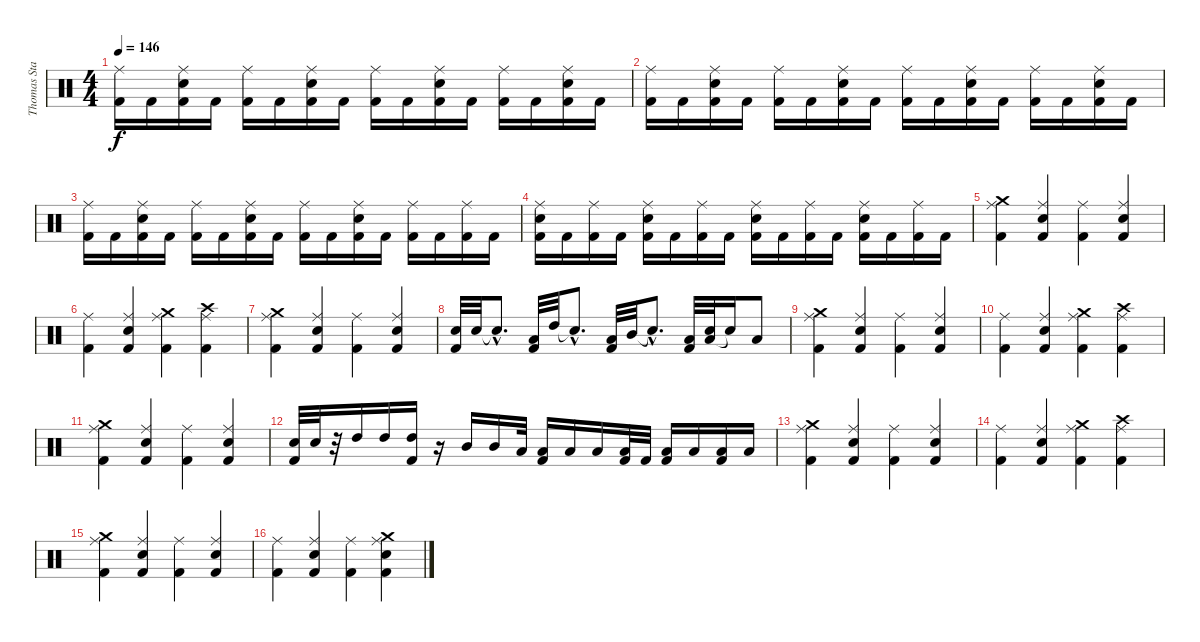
\track ("Thomas Stauch" "Thomas Sta") {instrument percussion}
\staff {score}
\articulation defaults
\ts (4 4)
\tempo 146
\clef neutral
\ks c
("Kick (hit) 2" "Ride (middle)").16{dy f} "Kick (hit) 2".16 ("Electric Snare (hit)" "Kick (hit) 2" "Ride (middle)").16 "Kick (hit) 2".16 ("Kick (hit) 2" "Ride (middle)").16 "Kick (hit) 2".16 ("Electric Snare (hit)" "Kick (hit) 2" "Ride (middle)").16 "Kick (hit) 2".16 ("Kick (hit) 2" "Ride (middle)").16 "Kick (hit) 2".16 ("Electric Snare (hit)" "Kick (hit) 2" "Ride (middle)").16 "Kick (hit) 2".16 ("Kick (hit) 2" "Ride (middle)").16 "Kick (hit) 2".16 ("Electric Snare (hit)" "Kick (hit) 2" "Ride (middle)").16 "Kick (hit) 2".16 |
("Kick (hit) 2" "Ride (middle)").16 "Kick (hit) 2".16 ("Electric Snare (hit)" "Kick (hit) 2" "Ride (middle)").16 "Kick (hit) 2".16 ("Kick (hit) 2" "Ride (middle)").16 "Kick (hit) 2".16 ("Electric Snare (hit)" "Kick (hit) 2" "Ride (middle)").16 "Kick (hit) 2".16 ("Kick (hit) 2" "Ride (middle)").16 "Kick (hit) 2".16 ("Electric Snare (hit)" "Kick (hit) 2" "Ride (middle)").16 "Kick (hit) 2".16 ("Kick (hit) 2" "Ride (middle)").16 "Kick (hit) 2".16 ("Electric Snare (hit)" "Kick (hit) 2" "Ride (middle)").16 "Kick (hit) 2".16 |
("Kick (hit) 2" "Ride (middle)").16 "Kick (hit) 2".16 ("Electric Snare (hit)" "Kick (hit) 2" "Ride (middle)").16 "Kick (hit) 2".16 ("Kick (hit) 2" "Ride (middle)").16 "Kick (hit) 2".16 ("Electric Snare (hit)" "Kick (hit) 2" "Ride (middle)").16 "Kick (hit) 2".16 ("Kick (hit) 2" "Ride (middle)").16 "Kick (hit) 2".16 ("Electric Snare (hit)" "Kick (hit) 2" "Ride (middle)").16 "Kick (hit) 2".16 ("Kick (hit) 2" "Ride (middle)").16 "Kick (hit) 2".16 ("Kick (hit) 2" "Ride (middle)").16 "Kick (hit) 2".16 |
("Electric Snare (hit)" "Kick (hit) 2" "Ride (middle)").16 "Kick (hit) 2".16 ("Kick (hit) 2" "Ride (middle)").16 "Kick (hit) 2".16 ("Electric Snare (hit)" "Kick (hit) 2" "Ride (middle)").16 "Kick (hit) 2".16 ("Kick (hit) 2" "Ride (middle)").16 "Kick (hit) 2".16 ("Electric Snare (hit)" "Kick (hit) 2" "Ride (middle)").16 "Kick (hit) 2".16 ("Kick (hit) 2" "Ride (middle)").16 "Kick (hit) 2".16 ("Electric Snare (hit)" "Kick (hit) 2" "Ride (middle)").16 "Kick (hit) 2".16 ("Kick (hit) 2" "Ride (middle)").16 "Kick (hit) 2".16 |
("Crash medium (hit)" "Kick (hit) 2" "Ride (middle)").4 ("Electric Snare (hit)" "Kick (hit) 2" "Ride (middle)").4 ("Kick (hit) 2" "Ride (middle)").4 ("Electric Snare (hit)" "Kick (hit) 2" "Ride (middle)").4 |
("Kick (hit) 2" "Ride (middle)").4 ("Electric Snare (hit)" "Kick (hit) 2" "Ride (middle)").4 ("Crash medium (hit)" "Kick (hit) 2" "Ride (middle)").4 ("Crash high (hit)" "Kick (hit) 2" "Ride (middle)").4 |
("Crash medium (hit)" "Kick (hit) 2" "Ride (middle)").4 ("Electric Snare (hit)" "Kick (hit) 2" "Ride (middle)").4 ("Kick (hit) 2" "Ride (middle)").4 ("Electric Snare (hit)" "Kick (hit) 2" "Ride (middle)").4 |
("Electric Snare (hit)" "Kick (hit) 2").32 "Electric Snare (hit)".32 "Snare (hit)"{hac t}.8{d} ("Low Floor Tom (hit)" "Kick (hit) 2").32 "High Tom (hit)".32 "Snare (hit)"{hac t}.8{d} ("Low Floor Tom (hit)" "Kick (hit) 2").32 "Mid Tom (hit)".32 "Snare (hit)"{hac t}.8{d} ("Low Floor Tom (hit)" "Kick (hit) 2").32 ("Low Tom (hit)" "Electric Snare (hit)").32 "Snare (hit)"{t}.16 "Low Tom (hit)".8 |
("Crash medium (hit)" "Kick (hit) 2" "Ride (middle)").4 ("Electric Snare (hit)" "Kick (hit) 2" "Ride (middle)").4 ("Kick (hit) 2" "Ride (middle)").4 ("Electric Snare (hit)" "Kick (hit) 2" "Ride (middle)").4 |
("Kick (hit) 2" "Ride (middle)").4 ("Electric Snare (hit)" "Kick (hit) 2" "Ride (middle)").4 ("Crash medium (hit)" "Kick (hit) 2" "Ride (middle)").4 ("Crash high (hit)" "Kick (hit) 2" "Ride (middle)").4 |
("Crash medium (hit)" "Kick (hit) 2" "Ride (middle)").4 ("Electric Snare (hit)" "Kick (hit) 2" "Ride (middle)").4 ("Kick (hit) 2" "Ride (middle)").4 ("Electric Snare (hit)" "Kick (hit) 2" "Ride (middle)").4 |
("Electric Snare (hit)" "Kick (hit) 2").32 "Electric Snare (hit)".32 r.32 "High Tom (hit)".16 "High Tom (hit)".16 ("High Tom (hit)" "Kick (hit) 2").16 r.16 "Mid Tom (hit)".16 "Mid Tom (hit)".16 "Low Tom (hit)".32 ("Low Tom (hit)" "Kick (hit) 2").16 "Low Tom (hit)".16 "Low Tom (hit)".16 ("Low Tom (hit)" "Kick (hit) 2").32 "Kick (hit) 2".32 ("Low Tom (hit)" "Kick (hit) 2").16 "Low Tom (hit)".16 ("Low Tom (hit)" "Kick (hit) 2").16 "Low Tom (hit)".16 |
("Crash medium (hit)" "Kick (hit) 2" "Ride (middle)").4 ("Electric Snare (hit)" "Kick (hit) 2" "Ride (middle)").4 ("Kick (hit) 2" "Ride (middle)").4 ("Electric Snare (hit)" "Kick (hit) 2" "Ride (middle)").4 |
("Kick (hit) 2" "Ride (middle)").4 ("Electric Snare (hit)" "Kick (hit) 2" "Ride (middle)").4 ("Crash medium (hit)" "Kick (hit) 2" "Ride (middle)").4 ("Crash high (hit)" "Kick (hit) 2" "Ride (middle)").4 |
("Crash medium (hit)" "Kick (hit) 2" "Ride (middle)").4 ("Electric Snare (hit)" "Kick (hit) 2" "Ride (middle)").4 ("Kick (hit) 2" "Ride (middle)").4 ("Electric Snare (hit)" "Kick (hit) 2" "Ride (middle)").4 |
("Kick (hit) 2" "Ride (middle)").4 ("Electric Snare (hit)" "Kick (hit) 2" "Ride (middle)").4 ("Kick (hit) 2" "Ride (middle)").4 ("Electric Snare (hit)" "Crash medium (hit)" "Kick (hit) 2" "Ride (middle)").4
